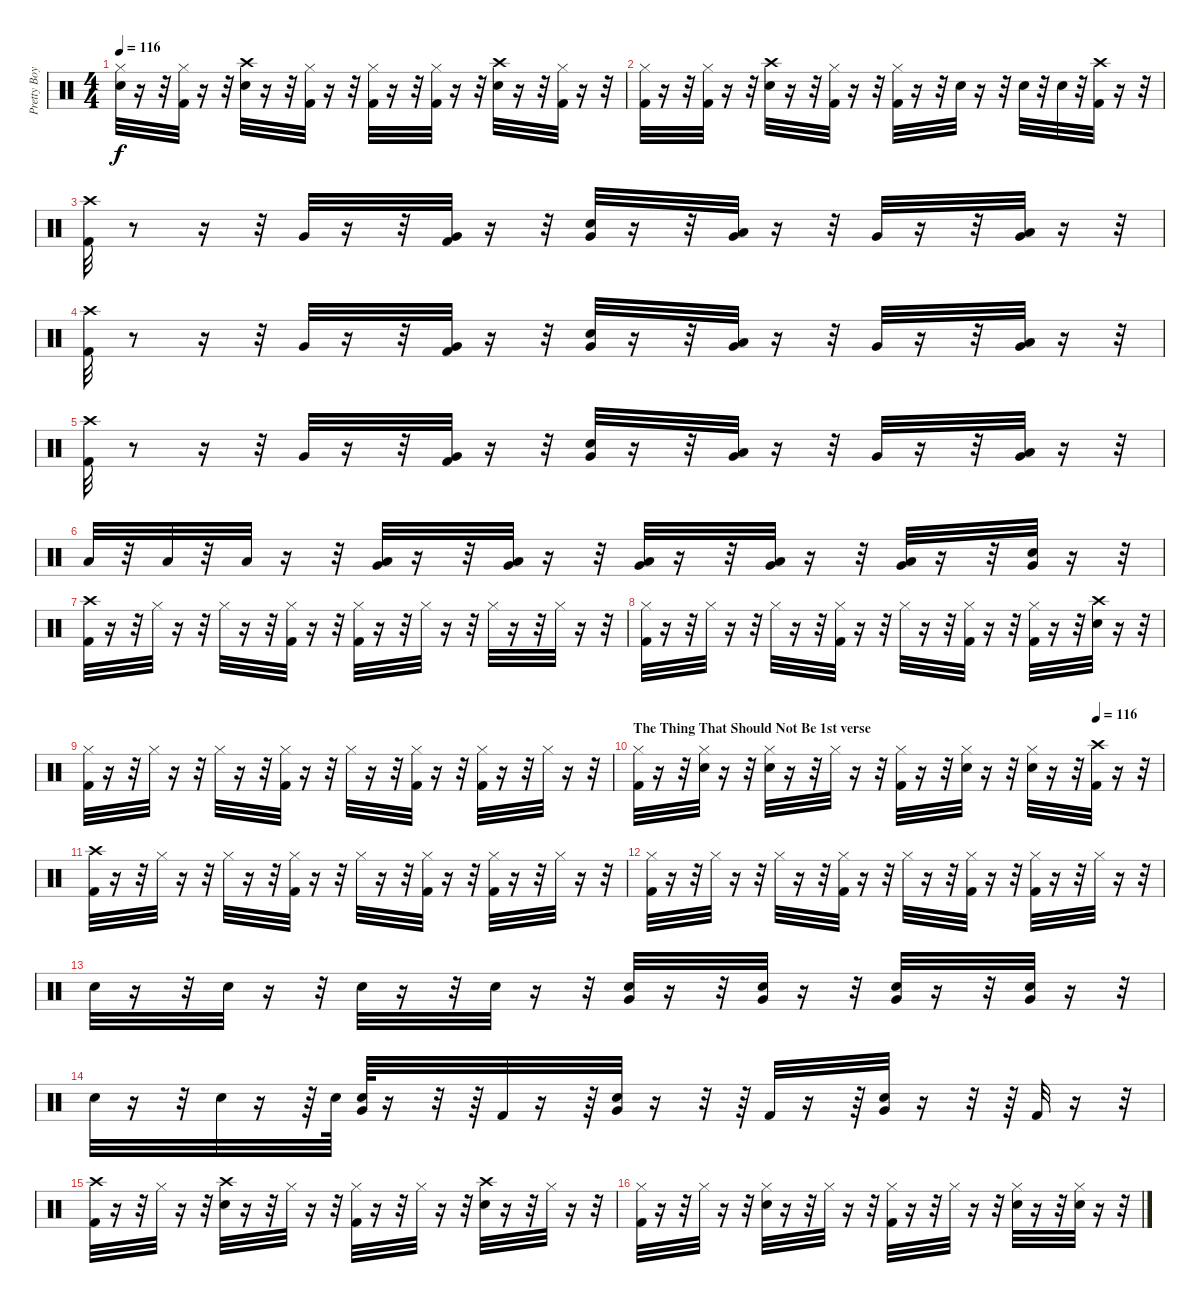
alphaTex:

\track ("Pretty Boy Geoff (Lars Drums)" "Pretty Boy") {instrument percussion}
\staff {score}
\articulation defaults
\ts (4 4)
\tempo 116
\clef neutral
\ks c
("Snare (hit) 2" "Hi-Hat (closed)").32{dy f} r.16 r.32 ("Kick (hit) 2" "Hi-Hat (closed)").32 r.16 r.32 ("Crash high (hit)" "Snare (hit) 2").32 r.16 r.32 ("Kick (hit) 2" "Hi-Hat (closed)").32 r.16 r.32 ("Hi-Hat (closed)" "Kick (hit) 2").32 r.16 r.32 ("Kick (hit) 2" "Hi-Hat (closed)").32 r.16 r.32 ("Crash high (hit)" "Snare (hit) 2").32 r.16 r.32 ("Kick (hit) 2" "Hi-Hat (closed)").32 r.16 r.32 |
("Kick (hit) 2" "Hi-Hat (closed)").32 r.16 r.32 ("Kick (hit) 2" "Hi-Hat (closed)").32 r.16 r.32 ("Crash high (hit)" "Snare (hit) 2").32 r.16 r.32 ("Kick (hit) 2" "Hi-Hat (closed)").32 r.16 r.32 ("Hi-Hat (closed)" "Kick (hit) 2").32 r.16 r.32 "Snare (hit) 2".32 r.16 r.32 "Snare (hit) 2".32 r.32 "Snare (hit) 2".32 r.32 ("Crash high (hit)" "Kick (hit) 2").32 r.16 r.32 |
("Kick (hit) 2" "Crash high (hit)").32 r.8 r.16 r.32 "Very Low Tom (hit)".32 r.16 r.32 ("Very Low Tom (hit)" "Kick (hit) 2").32 r.16 r.32 ("Snare (hit) 2" "Very Low Tom (hit)").32 r.16 r.32 ("Low Tom (hit)" "Very Low Tom (hit)").32 r.16 r.32 "Very Low Tom (hit)".32 r.16 r.32 ("Low Tom (hit)" "Very Low Tom (hit)").32 r.16 r.32 |
("Kick (hit) 2" "Crash high (hit)").32 r.8 r.16 r.32 "Very Low Tom (hit)".32 r.16 r.32 ("Very Low Tom (hit)" "Kick (hit) 2").32 r.16 r.32 ("Snare (hit) 2" "Very Low Tom (hit)").32 r.16 r.32 ("Low Tom (hit)" "Very Low Tom (hit)").32 r.16 r.32 "Very Low Tom (hit)".32 r.16 r.32 ("Low Tom (hit)" "Very Low Tom (hit)").32 r.16 r.32 |
("Kick (hit) 2" "Crash high (hit)").32 r.8 r.16 r.32 "Very Low Tom (hit)".32 r.16 r.32 ("Very Low Tom (hit)" "Kick (hit) 2").32 r.16 r.32 ("Snare (hit) 2" "Very Low Tom (hit)").32 r.16 r.32 ("Low Tom (hit)" "Very Low Tom (hit)").32 r.16 r.32 "Very Low Tom (hit)".32 r.16 r.32 ("Low Tom (hit)" "Very Low Tom (hit)").32 r.16 r.32 |
"Low Tom (hit)".32 r.32 "Low Tom (hit)".32 r.32 "Low Tom (hit)".32 r.16 r.32 ("Very Low Tom (hit)" "Low Tom (hit)").32 r.16 r.32 ("Very Low Tom (hit)" "Low Tom (hit)").32 r.16 r.32 ("Very Low Tom (hit)" "Low Tom (hit)").32 r.16 r.32 ("Very Low Tom (hit)" "Low Tom (hit)").32 r.16 r.32 ("Very Low Tom (hit)" "Low Tom (hit)").32 r.16 r.32 ("Snare (hit) 2" "Very Low Tom (hit)").32 r.16 r.32 |
("Kick (hit) 2" "Crash high (hit)").32 r.16 r.32 "Hi-Hat (closed)".32 r.16 r.32 "Hi-Hat (closed)".32 r.16 r.32 ("Kick (hit) 2" "Hi-Hat (closed)").32 r.16 r.32 ("Kick (hit) 2" "Hi-Hat (closed)").32 r.16 r.32 "Hi-Hat (closed)".32 r.16 r.32 "Hi-Hat (closed)".32 r.16 r.32 "Hi-Hat (closed)".32 r.16 r.32 |
("Kick (hit) 2" "Hi-Hat (closed)").32 r.16 r.32 "Hi-Hat (closed)".32 r.16 r.32 "Hi-Hat (closed)".32 r.16 r.32 ("Kick (hit) 2" "Hi-Hat (closed)").32 r.16 r.32 "Hi-Hat (closed)".32 r.16 r.32 ("Kick (hit) 2" "Hi-Hat (closed)").32 r.16 r.32 ("Kick (hit) 2" "Hi-Hat (closed)").32 r.16 r.32 ("Crash high (hit)" "Snare (hit) 2").32 r.16 r.32 |
("Kick (hit) 2" "Hi-Hat (closed)").32 r.16 r.32 "Hi-Hat (closed)".32 r.16 r.32 "Hi-Hat (closed)".32 r.16 r.32 ("Kick (hit) 2" "Hi-Hat (closed)").32 r.16 r.32 "Hi-Hat (closed)".32 r.16 r.32 ("Kick (hit) 2" "Hi-Hat (closed)").32 r.16 r.32 ("Kick (hit) 2" "Hi-Hat (closed)").32 r.16 r.32 "Hi-Hat (closed)".32 r.16 r.32 |
\section ("" "The Thing That Should Not Be 1st verse")
\tempo (116 0.875)
("Kick (hit) 2" "Hi-Hat (closed)").32 r.16 r.32 ("Snare (hit) 2" "Hi-Hat (closed)").32 r.16 r.32 ("Snare (hit) 2" "Hi-Hat (closed)").32 r.16 r.32 "Hi-Hat (closed)".32 r.16 r.32 ("Kick (hit) 2" "Hi-Hat (closed)").32 r.16 r.32 ("Snare (hit) 2" "Hi-Hat (closed)").32 r.16 r.32 ("Snare (hit) 2" "Hi-Hat (closed)").32 r.16 r.32 ("Kick (hit) 2" "Crash high (hit)").32 r.16 r.32 |
("Kick (hit) 2" "Crash high (hit)").32 r.16 r.32 "Hi-Hat (closed)".32 r.16 r.32 "Hi-Hat (closed)".32 r.16 r.32 ("Hi-Hat (closed)" "Kick (hit) 2").32 r.16 r.32 "Hi-Hat (closed)".32 r.16 r.32 ("Hi-Hat (closed)" "Kick (hit) 2").32 r.16 r.32 ("Hi-Hat (closed)" "Kick (hit) 2").32 r.16 r.32 "Hi-Hat (closed)".32 r.16 r.32 |
("Kick (hit) 2" "Hi-Hat (closed)").32 r.16 r.32 "Hi-Hat (closed)".32 r.16 r.32 "Hi-Hat (closed)".32 r.16 r.32 ("Kick (hit) 2" "Hi-Hat (closed)").32 r.16 r.32 "Hi-Hat (closed)".32 r.16 r.32 ("Kick (hit) 2" "Hi-Hat (closed)").32 r.16 r.32 ("Kick (hit) 2" "Hi-Hat (closed)").32 r.16 r.32 "Hi-Hat (closed)".32 r.16 r.32 |
"Snare (hit) 2".32 r.16 r.32 "Snare (hit) 2".32 r.16 r.32 "Snare (hit) 2".32 r.16 r.32 "Snare (hit) 2".32 r.16 r.32 ("Very Low Tom (hit)" "Snare (hit) 2").32 r.16 r.32 ("Very Low Tom (hit)" "Snare (hit) 2").32 r.16 r.32 ("Very Low Tom (hit)" "Snare (hit) 2").32 r.16 r.32 ("Very Low Tom (hit)" "Snare (hit) 2").32 r.16 r.32 |
"Snare (hit) 2".32 r.16 r.32 "Snare (hit) 2".32 r.16 r.64 "Snare (hit) 2".64 ("Very Low Tom (hit)" "Snare (hit) 2").64 r.16 r.32 r.64 "Kick (hit) 2".32 r.16 r.64 ("Snare (hit) 2" "Very Low Tom (hit)").32 r.16 r.32 r.64 "Kick (hit) 2".32 r.16 r.64 ("Snare (hit) 2" "Very Low Tom (hit)").32 r.16 r.32 r.64 "Kick (hit) 2".32 r.16 r.32 |
("Crash high (hit)" "Kick (hit) 2").32 r.16 r.32 "Hi-Hat (closed)".32 r.16 r.32 ("Snare (hit) 2" "Crash high (hit)").32 r.16 r.32 "Hi-Hat (closed)".32 r.16 r.32 ("Hi-Hat (closed)" "Kick (hit) 2").32 r.16 r.32 "Hi-Hat (closed)".32 r.16 r.32 ("Crash high (hit)" "Snare (hit) 2").32 r.16 r.32 "Hi-Hat (closed)".32 r.16 r.32 |
("Hi-Hat (closed)" "Kick (hit) 2").32 r.16 r.32 "Hi-Hat (closed)".32 r.16 r.32 ("Snare (hit) 2" "Hi-Hat (closed)").32 r.16 r.32 "Hi-Hat (closed)".32 r.16 r.32 ("Hi-Hat (closed)" "Kick (hit) 2").32 r.16 r.32 "Hi-Hat (closed)".32 r.16 r.32 ("Snare (hit) 2" "Hi-Hat (closed)").32 r.16 r.32 ("Snare (hit) 2" "Hi-Hat (closed)").32 r.16 r.32
